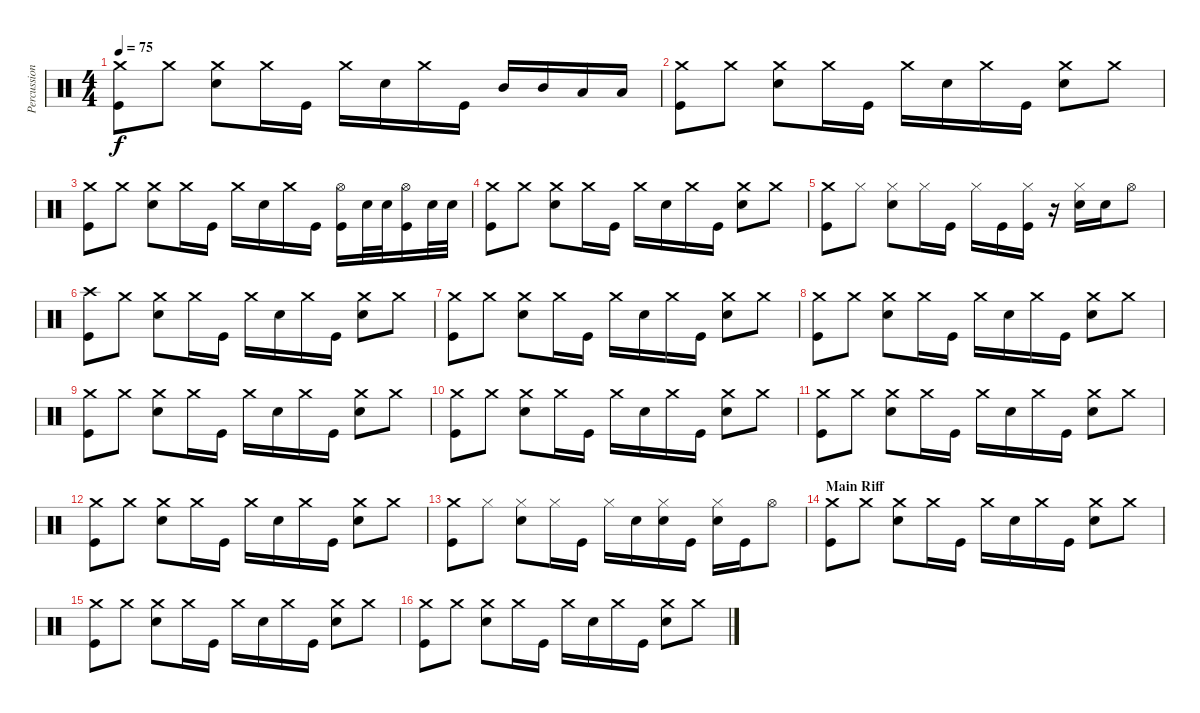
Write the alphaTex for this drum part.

\track ("Percussion" "Percussion") {instrument percussion}
\staff {score}
\articulation defaults
\ts (4 4)
\tempo 75
\clef neutral
\ks c
("Crash medium (hit)" "Kick (hit)").8{dy f} "Crash medium (hit)".8 ("Crash medium (hit)" "Snare (hit) 2").8 "Crash medium (hit)".16 "Kick (hit)".16 "Crash medium (hit)".16 "Snare (hit) 2".16 "Crash medium (hit)".16 "Kick (hit)".16 "Mid Tom (hit)".16 "Mid Tom (hit)".16 "Low Tom (hit)".16 "Low Tom (hit)".16 |
("Crash medium (hit)" "Kick (hit)").8 "Crash medium (hit)".8 ("Crash medium (hit)" "Snare (hit) 2").8 "Crash medium (hit)".16 "Kick (hit)".16 "Crash medium (hit)".16 "Snare (hit) 2".16 "Crash medium (hit)".16 "Kick (hit)".16 ("Crash medium (hit)" "Snare (hit) 2").8 "Crash medium (hit)".8 |
("Crash medium (hit)" "Kick (hit)").8 "Crash medium (hit)".8 ("Crash medium (hit)" "Snare (hit) 2").8 "Crash medium (hit)".16 "Kick (hit)".16 "Crash medium (hit)".16 "Snare (hit) 2".16 "Crash medium (hit)".16 "Kick (hit)".16 ("Hi-Hat (open)" "Kick (hit)").16 "Snare (hit) 2".32 "Snare (hit) 2".32 ("Hi-Hat (open)" "Kick (hit)").16 "Snare (hit) 2".32 "Snare (hit) 2".32 |
("Crash medium (hit)" "Kick (hit)").8 "Crash medium (hit)".8 ("Crash medium (hit)" "Snare (hit) 2").8 "Crash medium (hit)".16 "Kick (hit)".16 "Crash medium (hit)".16 "Snare (hit) 2".16 "Crash medium (hit)".16 "Kick (hit)".16 ("Crash medium (hit)" "Snare (hit) 2").8 "Crash medium (hit)".8 |
("Crash medium (hit)" "Kick (hit)").8 "Hi-Hat (closed)".8 ("Hi-Hat (closed)" "Snare (hit) 2").8 "Hi-Hat (closed)".16 "Kick (hit)".16 "Hi-Hat (closed)".16 "Kick (hit)".16 ("Hi-Hat (closed)" "Kick (hit)").16 r.16 ("Hi-Hat (closed)" "Snare (hit) 2").16 "Snare (hit) 2".16 "Hi-Hat (open)".8 |
("Crash high (hit)" "Kick (hit)").8 "Crash medium (hit)".8 ("Crash medium (hit)" "Snare (hit) 2").8 "Crash medium (hit)".16 "Kick (hit)".16 "Crash medium (hit)".16 "Snare (hit) 2".16 "Crash medium (hit)".16 "Kick (hit)".16 ("Crash medium (hit)" "Snare (hit) 2").8 "Crash medium (hit)".8 |
("Crash medium (hit)" "Kick (hit)").8 "Crash medium (hit)".8 ("Crash medium (hit)" "Snare (hit) 2").8 "Crash medium (hit)".16 "Kick (hit)".16 "Crash medium (hit)".16 "Snare (hit) 2".16 "Crash medium (hit)".16 "Kick (hit)".16 ("Crash medium (hit)" "Snare (hit) 2").8 "Crash medium (hit)".8 |
("Crash medium (hit)" "Kick (hit)").8 "Crash medium (hit)".8 ("Crash medium (hit)" "Snare (hit) 2").8 "Crash medium (hit)".16 "Kick (hit)".16 "Crash medium (hit)".16 "Snare (hit) 2".16 "Crash medium (hit)".16 "Kick (hit)".16 ("Crash medium (hit)" "Snare (hit) 2").8 "Crash medium (hit)".8 |
("Crash medium (hit)" "Kick (hit)").8 "Crash medium (hit)".8 ("Crash medium (hit)" "Snare (hit) 2").8 "Crash medium (hit)".16 "Kick (hit)".16 "Crash medium (hit)".16 "Snare (hit) 2".16 "Crash medium (hit)".16 "Kick (hit)".16 ("Crash medium (hit)" "Snare (hit) 2").8 "Crash medium (hit)".8 |
("Crash medium (hit)" "Kick (hit)").8 "Crash medium (hit)".8 ("Crash medium (hit)" "Snare (hit) 2").8 "Crash medium (hit)".16 "Kick (hit)".16 "Crash medium (hit)".16 "Snare (hit) 2".16 "Crash medium (hit)".16 "Kick (hit)".16 ("Crash medium (hit)" "Snare (hit) 2").8 "Crash medium (hit)".8 |
("Crash medium (hit)" "Kick (hit)").8 "Crash medium (hit)".8 ("Crash medium (hit)" "Snare (hit) 2").8 "Crash medium (hit)".16 "Kick (hit)".16 "Crash medium (hit)".16 "Snare (hit) 2".16 "Crash medium (hit)".16 "Kick (hit)".16 ("Crash medium (hit)" "Snare (hit) 2").8 "Crash medium (hit)".8 |
("Crash medium (hit)" "Kick (hit)").8 "Crash medium (hit)".8 ("Crash medium (hit)" "Snare (hit) 2").8 "Crash medium (hit)".16 "Kick (hit)".16 "Crash medium (hit)".16 "Snare (hit) 2".16 "Crash medium (hit)".16 "Kick (hit)".16 ("Crash medium (hit)" "Snare (hit) 2").8 "Crash medium (hit)".8 |
("Crash medium (hit)" "Kick (hit)").8 "Hi-Hat (closed)".8 ("Hi-Hat (closed)" "Snare (hit) 2").8 "Hi-Hat (closed)".16 "Kick (hit)".16 "Hi-Hat (closed)".16 "Snare (hit) 2".16 ("Hi-Hat (closed)" "Snare (hit) 2").16 "Kick (hit)".16 ("Hi-Hat (closed)" "Snare (hit) 2").16 "Kick (hit)".16 "Hi-Hat (open)".8 |
\section ("" "Main Riff")
("Crash medium (hit)" "Kick (hit)").8 "Crash medium (hit)".8 ("Crash medium (hit)" "Snare (hit) 2").8 "Crash medium (hit)".16 "Kick (hit)".16 "Crash medium (hit)".16 "Snare (hit) 2".16 "Crash medium (hit)".16 "Kick (hit)".16 ("Crash medium (hit)" "Snare (hit) 2").8 "Crash medium (hit)".8 |
("Crash medium (hit)" "Kick (hit)").8 "Crash medium (hit)".8 ("Crash medium (hit)" "Snare (hit) 2").8 "Crash medium (hit)".16 "Kick (hit)".16 "Crash medium (hit)".16 "Snare (hit) 2".16 "Crash medium (hit)".16 "Kick (hit)".16 ("Crash medium (hit)" "Snare (hit) 2").8 "Crash medium (hit)".8 |
("Crash medium (hit)" "Kick (hit)").8 "Crash medium (hit)".8 ("Crash medium (hit)" "Snare (hit) 2").8 "Crash medium (hit)".16 "Kick (hit)".16 "Crash medium (hit)".16 "Snare (hit) 2".16 "Crash medium (hit)".16 "Kick (hit)".16 ("Crash medium (hit)" "Snare (hit) 2").8 "Crash medium (hit)".8
